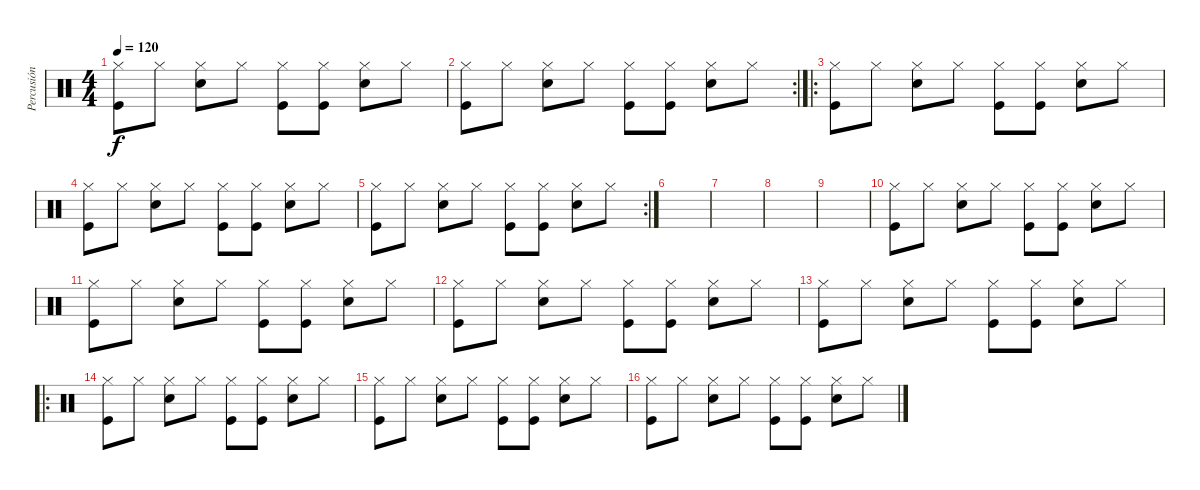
\track ("Percusión" "Percusión") {instrument percussion}
\staff {score}
\articulation defaults
\ts (4 4)
\tempo 120
\clef neutral
\ks c
("Hi-Hat (closed)" "Kick (hit)").8{dy f} "Hi-Hat (closed)".8 ("Hi-Hat (closed)" "Electric Snare (hit)").8 "Hi-Hat (closed)".8 ("Hi-Hat (closed)" "Kick (hit)").8 ("Hi-Hat (closed)" "Kick (hit)").8 ("Hi-Hat (closed)" "Electric Snare (hit)").8 "Hi-Hat (closed)".8 |
\rc 2
("Hi-Hat (closed)" "Kick (hit)").8 "Hi-Hat (closed)".8 ("Hi-Hat (closed)" "Electric Snare (hit)").8 "Hi-Hat (closed)".8 ("Hi-Hat (closed)" "Kick (hit)").8 ("Hi-Hat (closed)" "Kick (hit)").8 ("Hi-Hat (closed)" "Electric Snare (hit)").8 "Hi-Hat (closed)".8 |
\ro
("Hi-Hat (closed)" "Kick (hit)").8 "Hi-Hat (closed)".8 ("Hi-Hat (closed)" "Electric Snare (hit)").8 "Hi-Hat (closed)".8 ("Hi-Hat (closed)" "Kick (hit)").8 ("Hi-Hat (closed)" "Kick (hit)").8 ("Hi-Hat (closed)" "Electric Snare (hit)").8 "Hi-Hat (closed)".8 |
("Hi-Hat (closed)" "Kick (hit)").8 "Hi-Hat (closed)".8 ("Hi-Hat (closed)" "Electric Snare (hit)").8 "Hi-Hat (closed)".8 ("Hi-Hat (closed)" "Kick (hit)").8 ("Hi-Hat (closed)" "Kick (hit)").8 ("Hi-Hat (closed)" "Electric Snare (hit)").8 "Hi-Hat (closed)".8 |
\rc 2
("Hi-Hat (closed)" "Kick (hit)").8 "Hi-Hat (closed)".8 ("Hi-Hat (closed)" "Electric Snare (hit)").8 "Hi-Hat (closed)".8 ("Hi-Hat (closed)" "Kick (hit)").8 ("Hi-Hat (closed)" "Kick (hit)").8 ("Hi-Hat (closed)" "Electric Snare (hit)").8 "Hi-Hat (closed)".8 |
|
|
|
|
("Hi-Hat (closed)" "Kick (hit)").8 "Hi-Hat (closed)".8 ("Hi-Hat (closed)" "Electric Snare (hit)").8 "Hi-Hat (closed)".8 ("Hi-Hat (closed)" "Kick (hit)").8 ("Hi-Hat (closed)" "Kick (hit)").8 ("Hi-Hat (closed)" "Electric Snare (hit)").8 "Hi-Hat (closed)".8 |
("Hi-Hat (closed)" "Kick (hit)").8 "Hi-Hat (closed)".8 ("Hi-Hat (closed)" "Electric Snare (hit)").8 "Hi-Hat (closed)".8 ("Hi-Hat (closed)" "Kick (hit)").8 ("Hi-Hat (closed)" "Kick (hit)").8 ("Hi-Hat (closed)" "Electric Snare (hit)").8 "Hi-Hat (closed)".8 |
("Hi-Hat (closed)" "Kick (hit)").8 "Hi-Hat (closed)".8 ("Hi-Hat (closed)" "Electric Snare (hit)").8 "Hi-Hat (closed)".8 ("Hi-Hat (closed)" "Kick (hit)").8 ("Hi-Hat (closed)" "Kick (hit)").8 ("Hi-Hat (closed)" "Electric Snare (hit)").8 "Hi-Hat (closed)".8 |
("Hi-Hat (closed)" "Kick (hit)").8 "Hi-Hat (closed)".8 ("Hi-Hat (closed)" "Electric Snare (hit)").8 "Hi-Hat (closed)".8 ("Hi-Hat (closed)" "Kick (hit)").8 ("Hi-Hat (closed)" "Kick (hit)").8 ("Hi-Hat (closed)" "Electric Snare (hit)").8 "Hi-Hat (closed)".8 |
\ro
("Hi-Hat (closed)" "Kick (hit)").8 "Hi-Hat (closed)".8 ("Hi-Hat (closed)" "Electric Snare (hit)").8 "Hi-Hat (closed)".8 ("Hi-Hat (closed)" "Kick (hit)").8 ("Hi-Hat (closed)" "Kick (hit)").8 ("Hi-Hat (closed)" "Electric Snare (hit)").8 "Hi-Hat (closed)".8 |
("Hi-Hat (closed)" "Kick (hit)").8 "Hi-Hat (closed)".8 ("Hi-Hat (closed)" "Electric Snare (hit)").8 "Hi-Hat (closed)".8 ("Hi-Hat (closed)" "Kick (hit)").8 ("Hi-Hat (closed)" "Kick (hit)").8 ("Hi-Hat (closed)" "Electric Snare (hit)").8 "Hi-Hat (closed)".8 |
("Hi-Hat (closed)" "Kick (hit)").8 "Hi-Hat (closed)".8 ("Hi-Hat (closed)" "Electric Snare (hit)").8 "Hi-Hat (closed)".8 ("Hi-Hat (closed)" "Kick (hit)").8 ("Hi-Hat (closed)" "Kick (hit)").8 ("Hi-Hat (closed)" "Electric Snare (hit)").8 "Hi-Hat (closed)".8
